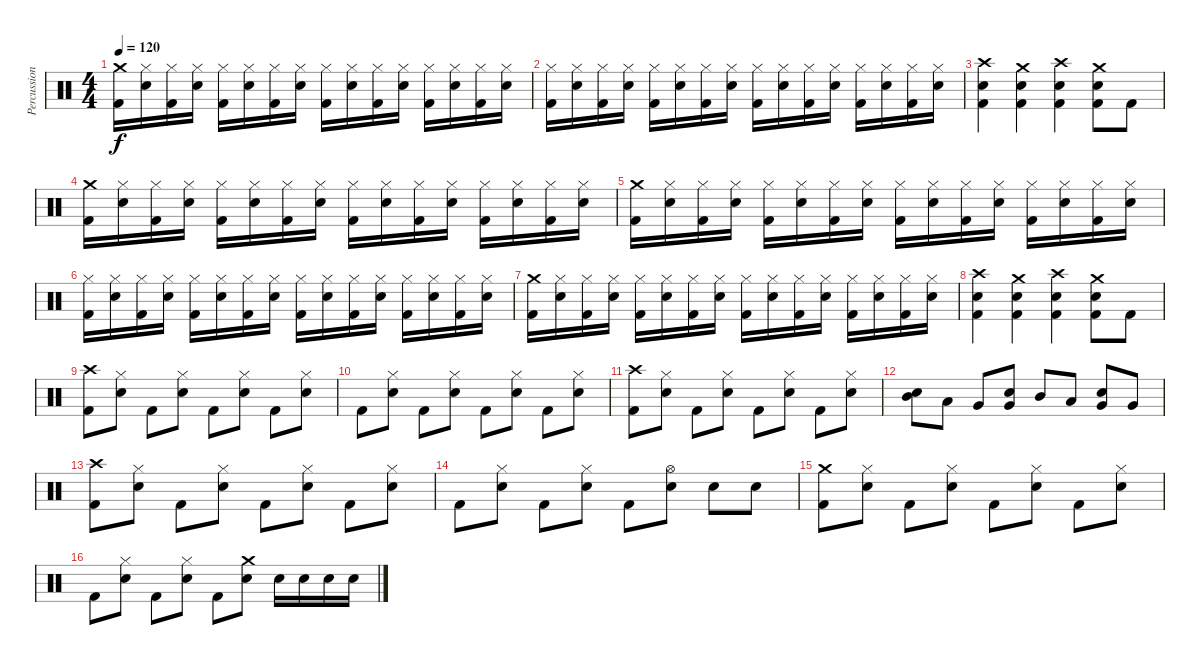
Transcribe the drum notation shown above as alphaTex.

\track ("Percussion" "Percussion") {instrument percussion}
\staff {score}
\articulation defaults
\ts (4 4)
\tempo 120
\clef neutral
\ks c
("Crash medium (hit)" "Kick (hit) 2").16{dy f} ("Hi-Hat (closed)" "Snare (hit) 2").16 ("Hi-Hat (closed)" "Kick (hit) 2").16 ("Hi-Hat (closed)" "Snare (hit) 2").16 ("Hi-Hat (closed)" "Kick (hit) 2").16 ("Hi-Hat (closed)" "Snare (hit) 2").16 ("Hi-Hat (closed)" "Kick (hit) 2").16 ("Hi-Hat (closed)" "Snare (hit) 2").16 ("Hi-Hat (closed)" "Kick (hit) 2").16 ("Hi-Hat (closed)" "Snare (hit) 2").16 ("Hi-Hat (closed)" "Kick (hit) 2").16 ("Hi-Hat (closed)" "Snare (hit) 2").16 ("Hi-Hat (closed)" "Kick (hit) 2").16 ("Hi-Hat (closed)" "Snare (hit) 2").16 ("Hi-Hat (closed)" "Kick (hit) 2").16 ("Hi-Hat (closed)" "Snare (hit) 2").16 |
("Hi-Hat (closed)" "Kick (hit) 2").16 ("Hi-Hat (closed)" "Snare (hit) 2").16 ("Hi-Hat (closed)" "Kick (hit) 2").16 ("Hi-Hat (closed)" "Snare (hit) 2").16 ("Hi-Hat (closed)" "Kick (hit) 2").16 ("Hi-Hat (closed)" "Snare (hit) 2").16 ("Hi-Hat (closed)" "Kick (hit) 2").16 ("Hi-Hat (closed)" "Snare (hit) 2").16 ("Hi-Hat (closed)" "Kick (hit) 2").16 ("Hi-Hat (closed)" "Snare (hit) 2").16 ("Hi-Hat (closed)" "Kick (hit) 2").16 ("Hi-Hat (closed)" "Snare (hit) 2").16 ("Hi-Hat (closed)" "Kick (hit) 2").16 ("Hi-Hat (closed)" "Snare (hit) 2").16 ("Hi-Hat (closed)" "Kick (hit) 2").16 ("Hi-Hat (closed)" "Snare (hit) 2").16 |
("Crash high (hit)" "Snare (hit) 2" "Kick (hit) 2").4 ("Crash medium (hit)" "Snare (hit) 2" "Kick (hit) 2").4 ("Crash high (hit)" "Snare (hit) 2" "Kick (hit) 2").4 ("Crash medium (hit)" "Snare (hit) 2" "Kick (hit) 2").8 "Kick (hit) 2".8 |
("Crash medium (hit)" "Kick (hit) 2").16 ("Hi-Hat (closed)" "Snare (hit) 2").16 ("Hi-Hat (closed)" "Kick (hit) 2").16 ("Hi-Hat (closed)" "Snare (hit) 2").16 ("Hi-Hat (closed)" "Kick (hit) 2").16 ("Hi-Hat (closed)" "Snare (hit) 2").16 ("Hi-Hat (closed)" "Kick (hit) 2").16 ("Hi-Hat (closed)" "Snare (hit) 2").16 ("Hi-Hat (closed)" "Kick (hit) 2").16 ("Hi-Hat (closed)" "Snare (hit) 2").16 ("Hi-Hat (closed)" "Kick (hit) 2").16 ("Hi-Hat (closed)" "Snare (hit) 2").16 ("Hi-Hat (closed)" "Kick (hit) 2").16 ("Hi-Hat (closed)" "Snare (hit) 2").16 ("Hi-Hat (closed)" "Kick (hit) 2").16 ("Hi-Hat (closed)" "Snare (hit) 2").16 |
("Crash medium (hit)" "Kick (hit) 2").16 ("Hi-Hat (closed)" "Snare (hit) 2").16 ("Hi-Hat (closed)" "Kick (hit) 2").16 ("Hi-Hat (closed)" "Snare (hit) 2").16 ("Hi-Hat (closed)" "Kick (hit) 2").16 ("Hi-Hat (closed)" "Snare (hit) 2").16 ("Hi-Hat (closed)" "Kick (hit) 2").16 ("Hi-Hat (closed)" "Snare (hit) 2").16 ("Hi-Hat (closed)" "Kick (hit) 2").16 ("Hi-Hat (closed)" "Snare (hit) 2").16 ("Hi-Hat (closed)" "Kick (hit) 2").16 ("Hi-Hat (closed)" "Snare (hit) 2").16 ("Hi-Hat (closed)" "Kick (hit) 2").16 ("Hi-Hat (closed)" "Snare (hit) 2").16 ("Hi-Hat (closed)" "Kick (hit) 2").16 ("Hi-Hat (closed)" "Snare (hit) 2").16 |
("Hi-Hat (closed)" "Kick (hit) 2").16 ("Hi-Hat (closed)" "Snare (hit) 2").16 ("Hi-Hat (closed)" "Kick (hit) 2").16 ("Hi-Hat (closed)" "Snare (hit) 2").16 ("Hi-Hat (closed)" "Kick (hit) 2").16 ("Hi-Hat (closed)" "Snare (hit) 2").16 ("Hi-Hat (closed)" "Kick (hit) 2").16 ("Hi-Hat (closed)" "Snare (hit) 2").16 ("Hi-Hat (closed)" "Kick (hit) 2").16 ("Hi-Hat (closed)" "Snare (hit) 2").16 ("Hi-Hat (closed)" "Kick (hit) 2").16 ("Hi-Hat (closed)" "Snare (hit) 2").16 ("Hi-Hat (closed)" "Kick (hit) 2").16 ("Hi-Hat (closed)" "Snare (hit) 2").16 ("Hi-Hat (closed)" "Kick (hit) 2").16 ("Hi-Hat (closed)" "Snare (hit) 2").16 |
("Crash medium (hit)" "Kick (hit) 2").16 ("Hi-Hat (closed)" "Snare (hit) 2").16 ("Hi-Hat (closed)" "Kick (hit) 2").16 ("Hi-Hat (closed)" "Snare (hit) 2").16 ("Hi-Hat (closed)" "Kick (hit) 2").16 ("Hi-Hat (closed)" "Snare (hit) 2").16 ("Hi-Hat (closed)" "Kick (hit) 2").16 ("Hi-Hat (closed)" "Snare (hit) 2").16 ("Hi-Hat (closed)" "Kick (hit) 2").16 ("Hi-Hat (closed)" "Snare (hit) 2").16 ("Hi-Hat (closed)" "Kick (hit) 2").16 ("Hi-Hat (closed)" "Snare (hit) 2").16 ("Hi-Hat (closed)" "Kick (hit) 2").16 ("Hi-Hat (closed)" "Snare (hit) 2").16 ("Hi-Hat (closed)" "Kick (hit) 2").16 ("Hi-Hat (closed)" "Snare (hit) 2").16 |
("Crash high (hit)" "Snare (hit) 2" "Kick (hit) 2").4 ("Crash medium (hit)" "Snare (hit) 2" "Kick (hit) 2").4 ("Crash high (hit)" "Snare (hit) 2" "Kick (hit) 2").4 ("Crash medium (hit)" "Snare (hit) 2" "Kick (hit) 2").8 "Kick (hit) 2".8 |
("Crash high (hit)" "Kick (hit) 2").8 ("Hi-Hat (closed)" "Snare (hit) 2").8 "Kick (hit) 2".8 ("Hi-Hat (closed)" "Snare (hit) 2").8 "Kick (hit) 2".8 ("Hi-Hat (closed)" "Snare (hit) 2").8 "Kick (hit) 2".8 ("Hi-Hat (closed)" "Snare (hit) 2").8 |
"Kick (hit) 2".8 ("Hi-Hat (closed)" "Snare (hit) 2").8 "Kick (hit) 2".8 ("Hi-Hat (closed)" "Snare (hit) 2").8 "Kick (hit) 2".8 ("Hi-Hat (closed)" "Snare (hit) 2").8 "Kick (hit) 2".8 ("Hi-Hat (closed)" "Snare (hit) 2").8 |
("Crash high (hit)" "Kick (hit) 2").8 ("Hi-Hat (closed)" "Snare (hit) 2").8 "Kick (hit) 2".8 ("Hi-Hat (closed)" "Snare (hit) 2").8 "Kick (hit) 2".8 ("Hi-Hat (closed)" "Snare (hit) 2").8 "Kick (hit) 2".8 ("Hi-Hat (closed)" "Snare (hit) 2").8 |
("Mid Tom (hit)" "Snare (hit) 2").8 "Low Tom (hit)".8 "Very Low Tom (hit)".8 ("Very Low Tom (hit)" "Snare (hit) 2").8 "Mid Tom (hit)".8 "Low Tom (hit)".8 ("Very Low Tom (hit)" "Snare (hit) 2").8 "Very Low Tom (hit)".8 |
("Crash high (hit)" "Kick (hit) 2").8 ("Hi-Hat (closed)" "Snare (hit) 2").8 "Kick (hit) 2".8 ("Hi-Hat (closed)" "Snare (hit) 2").8 "Kick (hit) 2".8 ("Hi-Hat (closed)" "Snare (hit) 2").8 "Kick (hit) 2".8 ("Hi-Hat (closed)" "Snare (hit) 2").8 |
"Kick (hit) 2".8 ("Hi-Hat (closed)" "Snare (hit) 2").8 "Kick (hit) 2".8 ("Hi-Hat (closed)" "Snare (hit) 2").8 "Kick (hit) 2".8 ("Hi-Hat (open)" "Snare (hit) 2").8 "Snare (hit) 2".8 "Snare (hit) 2".8 |
("Crash medium (hit)" "Kick (hit) 2").8 ("Hi-Hat (closed)" "Snare (hit) 2").8 "Kick (hit) 2".8 ("Hi-Hat (closed)" "Snare (hit) 2").8 "Kick (hit) 2".8 ("Hi-Hat (closed)" "Snare (hit) 2").8 "Kick (hit) 2".8 ("Hi-Hat (closed)" "Snare (hit) 2").8 |
"Kick (hit) 2".8 ("Hi-Hat (closed)" "Snare (hit) 2").8 "Kick (hit) 2".8 ("Hi-Hat (closed)" "Snare (hit) 2").8 "Kick (hit) 2".8 ("Crash medium (hit)" "Snare (hit) 2").8 "Snare (hit) 2".16 "Snare (hit) 2".16 "Snare (hit) 2".16 "Snare (hit) 2".16
